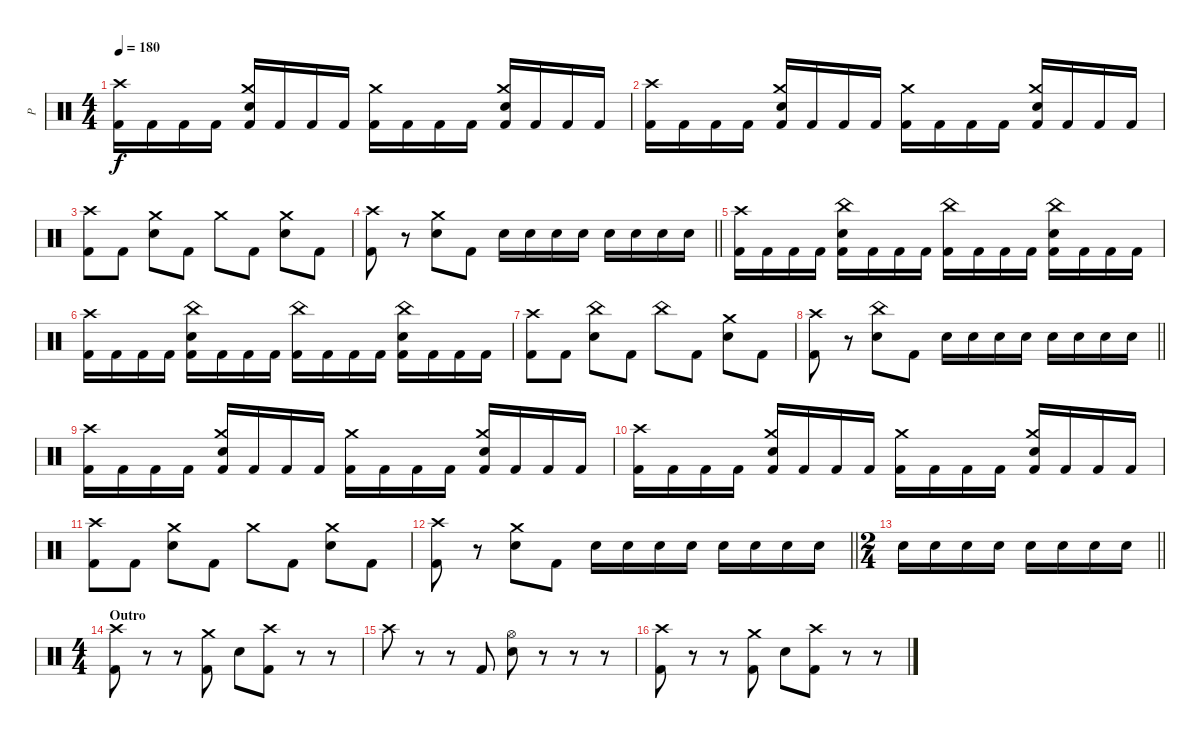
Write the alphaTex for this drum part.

\track ("P" "P") {instrument percussion}
\staff {score}
\articulation defaults
\ts (4 4)
\tempo 180
\clef neutral
\ks c
("Crash high (hit)" "Kick (hit) 2").16{dy f} "Kick (hit) 2".16 "Kick (hit) 2".16 "Kick (hit) 2".16 ("Crash medium (hit)" "Electric Snare (hit)" "Kick (hit) 2").16 "Kick (hit) 2".16 "Kick (hit) 2".16 "Kick (hit) 2".16 ("Crash medium (hit)" "Kick (hit) 2").16 "Kick (hit) 2".16 "Kick (hit) 2".16 "Kick (hit) 2".16 ("Crash medium (hit)" "Electric Snare (hit)" "Kick (hit) 2").16 "Kick (hit) 2".16 "Kick (hit) 2".16 "Kick (hit) 2".16 |
("Crash high (hit)" "Kick (hit) 2").16 "Kick (hit) 2".16 "Kick (hit) 2".16 "Kick (hit) 2".16 ("Crash medium (hit)" "Electric Snare (hit)" "Kick (hit) 2").16 "Kick (hit) 2".16 "Kick (hit) 2".16 "Kick (hit) 2".16 ("Crash medium (hit)" "Kick (hit) 2").16 "Kick (hit) 2".16 "Kick (hit) 2".16 "Kick (hit) 2".16 ("Crash medium (hit)" "Electric Snare (hit)" "Kick (hit) 2").16 "Kick (hit) 2".16 "Kick (hit) 2".16 "Kick (hit) 2".16 |
("Crash high (hit)" "Kick (hit) 2").8 "Kick (hit) 2".8 ("Crash medium (hit)" "Electric Snare (hit)").8 "Kick (hit) 2".8 "Crash medium (hit)".8 "Kick (hit) 2".8 ("Crash medium (hit)" "Electric Snare (hit)").8 "Kick (hit) 2".8 |
\barLineRight lightlight
("Crash high (hit)" "Kick (hit) 2").8 r.8 ("Crash medium (hit)" "Electric Snare (hit)").8 "Kick (hit) 2".8 "Electric Snare (hit)".16 "Electric Snare (hit)".16 "Electric Snare (hit)".16 "Electric Snare (hit)".16 "Electric Snare (hit)".16 "Electric Snare (hit)".16 "Electric Snare (hit)".16 "Electric Snare (hit)".16 |
("Crash high (hit)" "Kick (hit) 2").16 "Kick (hit) 2".16 "Kick (hit) 2".16 "Kick (hit) 2".16 ("China (hit)" "Electric Snare (hit)" "Kick (hit) 2").16 "Kick (hit) 2".16 "Kick (hit) 2".16 "Kick (hit) 2".16 ("China (hit)" "Kick (hit) 2").16 "Kick (hit) 2".16 "Kick (hit) 2".16 "Kick (hit) 2".16 ("China (hit)" "Electric Snare (hit)" "Kick (hit) 2").16 "Kick (hit) 2".16 "Kick (hit) 2".16 "Kick (hit) 2".16 |
("Crash high (hit)" "Kick (hit) 2").16 "Kick (hit) 2".16 "Kick (hit) 2".16 "Kick (hit) 2".16 ("China (hit)" "Electric Snare (hit)" "Kick (hit) 2").16 "Kick (hit) 2".16 "Kick (hit) 2".16 "Kick (hit) 2".16 ("China (hit)" "Kick (hit) 2").16 "Kick (hit) 2".16 "Kick (hit) 2".16 "Kick (hit) 2".16 ("China (hit)" "Electric Snare (hit)" "Kick (hit) 2").16 "Kick (hit) 2".16 "Kick (hit) 2".16 "Kick (hit) 2".16 |
("Crash high (hit)" "Kick (hit) 2").8 "Kick (hit) 2".8 ("China (hit)" "Electric Snare (hit)").8 "Kick (hit) 2".8 "China (hit)".8 "Kick (hit) 2".8 ("Crash medium (hit)" "Electric Snare (hit)").8 "Kick (hit) 2".8 |
\barLineRight lightlight
("Crash high (hit)" "Kick (hit) 2").8 r.8 ("China (hit)" "Electric Snare (hit)").8 "Kick (hit) 2".8 "Electric Snare (hit)".16 "Electric Snare (hit)".16 "Electric Snare (hit)".16 "Electric Snare (hit)".16 "Electric Snare (hit)".16 "Electric Snare (hit)".16 "Electric Snare (hit)".16 "Electric Snare (hit)".16 |
("Crash high (hit)" "Kick (hit) 2").16 "Kick (hit) 2".16 "Kick (hit) 2".16 "Kick (hit) 2".16 ("Crash medium (hit)" "Electric Snare (hit)" "Kick (hit) 2").16 "Kick (hit) 2".16 "Kick (hit) 2".16 "Kick (hit) 2".16 ("Crash medium (hit)" "Kick (hit) 2").16 "Kick (hit) 2".16 "Kick (hit) 2".16 "Kick (hit) 2".16 ("Crash medium (hit)" "Electric Snare (hit)" "Kick (hit) 2").16 "Kick (hit) 2".16 "Kick (hit) 2".16 "Kick (hit) 2".16 |
("Crash high (hit)" "Kick (hit) 2").16 "Kick (hit) 2".16 "Kick (hit) 2".16 "Kick (hit) 2".16 ("Crash medium (hit)" "Electric Snare (hit)" "Kick (hit) 2").16 "Kick (hit) 2".16 "Kick (hit) 2".16 "Kick (hit) 2".16 ("Crash medium (hit)" "Kick (hit) 2").16 "Kick (hit) 2".16 "Kick (hit) 2".16 "Kick (hit) 2".16 ("Crash medium (hit)" "Electric Snare (hit)" "Kick (hit) 2").16 "Kick (hit) 2".16 "Kick (hit) 2".16 "Kick (hit) 2".16 |
("Crash high (hit)" "Kick (hit) 2").8 "Kick (hit) 2".8 ("Crash medium (hit)" "Electric Snare (hit)").8 "Kick (hit) 2".8 "Crash medium (hit)".8 "Kick (hit) 2".8 ("Crash medium (hit)" "Electric Snare (hit)").8 "Kick (hit) 2".8 |
\barLineRight lightlight
("Crash high (hit)" "Kick (hit) 2").8 r.8 ("Crash medium (hit)" "Electric Snare (hit)").8 "Kick (hit) 2".8 "Electric Snare (hit)".16 "Electric Snare (hit)".16 "Electric Snare (hit)".16 "Electric Snare (hit)".16 "Electric Snare (hit)".16 "Electric Snare (hit)".16 "Electric Snare (hit)".16 "Electric Snare (hit)".16 |
\ts (2 4)
\barLineRight lightlight "Electric Snare (hit)".16 "Electric Snare (hit)".16 "Electric Snare (hit)".16 "Electric Snare (hit)".16 "Electric Snare (hit)".16 "Electric Snare (hit)".16 "Electric Snare (hit)".16 "Electric Snare (hit)".16
|
\ts (4 4)
\section ("" "Outro")
("Crash high (hit)" "Kick (hit) 2").8 r.8 r.8 ("Crash medium (hit)" "Kick (hit) 2").8 "Electric Snare (hit)".8 ("Crash high (hit)" "Kick (hit) 2").8 r.8 r.8 |
"Crash high (hit)".8 r.8 r.8 "Kick (hit) 2".8 ("Hi-Hat (open)" "Electric Snare (hit)").8 r.8 r.8 r.8 |
("Crash high (hit)" "Kick (hit) 2").8 r.8 r.8 ("Crash medium (hit)" "Kick (hit) 2").8 "Electric Snare (hit)".8 ("Crash high (hit)" "Kick (hit) 2").8 r.8 r.8
